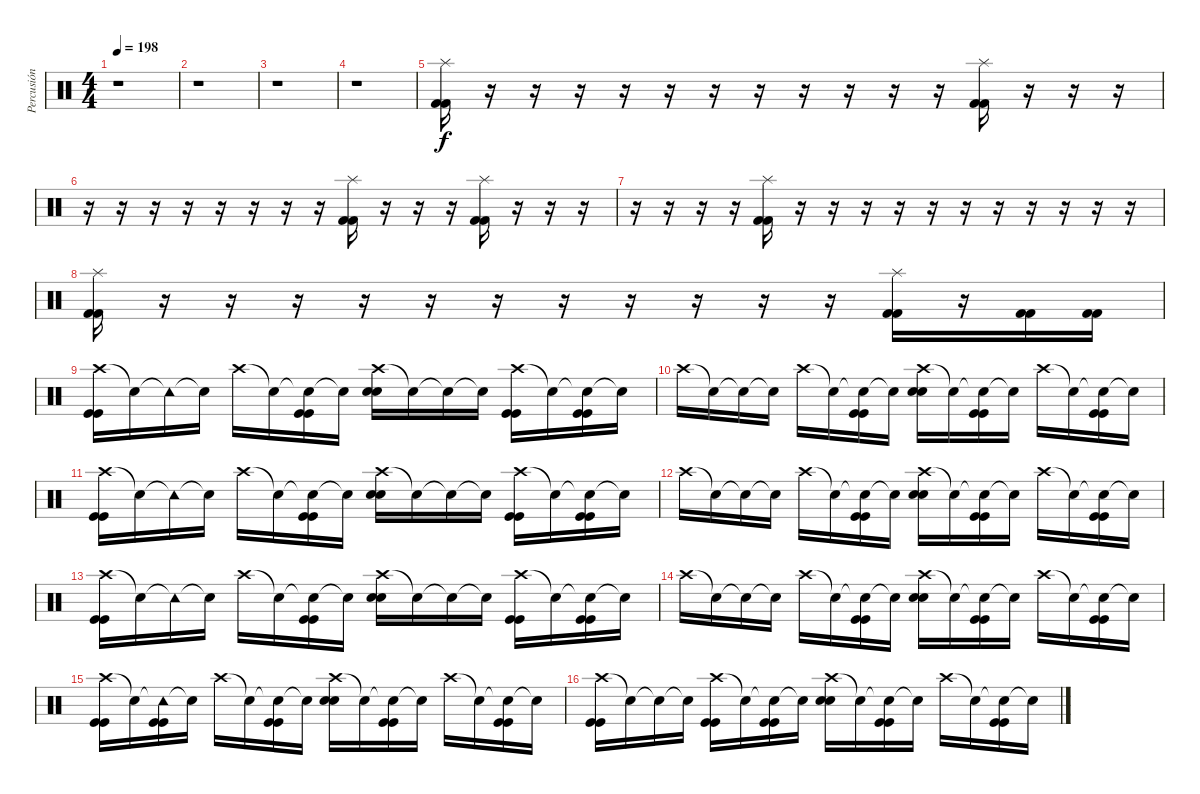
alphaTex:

\track ("Percusión" "Percusión") {instrument percussion}
\staff {score}
\articulation defaults
\ts (4 4)
\tempo 198
\clef neutral
\ks c
r.1{dy f} |
r.1 |
r.1 |
r.1 |
("Splash (hit)" "Kick (hit) 2" "Kick (hit) 2").16 r.16 r.16 r.16 r.16 r.16 r.16 r.16 r.16 r.16 r.16 r.16 ("Splash (hit)" "Kick (hit) 2" "Kick (hit) 2").16 r.16 r.16 r.16 |
r.16 r.16 r.16 r.16 r.16 r.16 r.16 r.16 ("Splash (hit)" "Kick (hit) 2" "Kick (hit) 2").16 r.16 r.16 r.16 ("Splash (hit)" "Kick (hit) 2" "Kick (hit) 2").16 r.16 r.16 r.16 |
r.16 r.16 r.16 r.16 ("Splash (hit)" "Kick (hit) 2" "Kick (hit) 2").16 r.16 r.16 r.16 r.16 r.16 r.16 r.16 r.16 r.16 r.16 r.16 |
("Splash (hit)" "Kick (hit) 2" "Kick (hit) 2").16 r.16 r.16 r.16 r.16 r.16 r.16 r.16 r.16 r.16 r.16 r.16 ("Splash (hit)" "Kick (hit) 2" "Kick (hit) 2").16 r.16 ("Kick (hit) 2" "Kick (hit) 2").16 ("Kick (hit) 2" "Kick (hit) 2").16 |
("Crash high (hit)" "Kick (hit)" "Kick (hit)").16 "Snare (hit)"{t}.16 "Tambourine (hit)"{t}.16 "Snare (hit)"{t}.16 "Crash high (hit)".16 "Snare (hit)"{t}.16 ("Snare (hit)"{t} "Kick (hit)" "Kick (hit)").16 "Snare (hit)"{t}.16 ("Crash high (hit)" "Snare (hit) 2" "Snare (hit) 2").16 "Snare (hit)"{t}.16 "Snare (hit)"{t}.16 "Snare (hit)"{t}.16 ("Crash high (hit)" "Kick (hit)" "Kick (hit)").16 "Snare (hit)"{t}.16 ("Snare (hit)"{t} "Kick (hit)" "Kick (hit)").16 "Snare (hit)"{t}.16 |
"Crash high (hit)".16 "Snare (hit)"{t}.16 "Snare (hit)"{t}.16 "Snare (hit)"{t}.16 "Crash high (hit)".16 "Snare (hit)"{t}.16 ("Snare (hit)"{t} "Kick (hit)" "Kick (hit)").16 "Snare (hit)"{t}.16 ("Crash high (hit)" "Snare (hit) 2" "Snare (hit) 2").16 "Snare (hit)"{t}.16 ("Snare (hit)"{t} "Kick (hit)" "Kick (hit)").16 "Snare (hit)"{t}.16 "Crash high (hit)".16 "Snare (hit)"{t}.16 ("Snare (hit)"{t} "Kick (hit)" "Kick (hit)").16 "Snare (hit)"{t}.16 |
("Crash high (hit)" "Kick (hit)" "Kick (hit)").16 "Snare (hit)"{t}.16 "Tambourine (hit)"{t}.16 "Snare (hit)"{t}.16 "Crash high (hit)".16 "Snare (hit)"{t}.16 ("Snare (hit)"{t} "Kick (hit)" "Kick (hit)").16 "Snare (hit)"{t}.16 ("Crash high (hit)" "Snare (hit) 2" "Snare (hit) 2").16 "Snare (hit)"{t}.16 "Snare (hit)"{t}.16 "Snare (hit)"{t}.16 ("Crash high (hit)" "Kick (hit)" "Kick (hit)").16 "Snare (hit)"{t}.16 ("Snare (hit)"{t} "Kick (hit)" "Kick (hit)").16 "Snare (hit)"{t}.16 |
"Crash high (hit)".16 "Snare (hit)"{t}.16 "Snare (hit)"{t}.16 "Snare (hit)"{t}.16 "Crash high (hit)".16 "Snare (hit)"{t}.16 ("Snare (hit)"{t} "Kick (hit)" "Kick (hit)").16 "Snare (hit)"{t}.16 ("Crash high (hit)" "Snare (hit) 2" "Snare (hit) 2").16 "Snare (hit)"{t}.16 ("Snare (hit)"{t} "Kick (hit)" "Kick (hit)").16 "Snare (hit)"{t}.16 "Crash high (hit)".16 "Snare (hit)"{t}.16 ("Snare (hit)"{t} "Kick (hit)" "Kick (hit)").16 "Snare (hit)"{t}.16 |
("Crash high (hit)" "Kick (hit)" "Kick (hit)").16 "Snare (hit)"{t}.16 "Tambourine (hit)"{t}.16 "Snare (hit)"{t}.16 "Crash high (hit)".16 "Snare (hit)"{t}.16 ("Snare (hit)"{t} "Kick (hit)" "Kick (hit)").16 "Snare (hit)"{t}.16 ("Crash high (hit)" "Snare (hit) 2" "Snare (hit) 2").16 "Snare (hit)"{t}.16 "Snare (hit)"{t}.16 "Snare (hit)"{t}.16 ("Crash high (hit)" "Kick (hit)" "Kick (hit)").16 "Snare (hit)"{t}.16 ("Snare (hit)"{t} "Kick (hit)" "Kick (hit)").16 "Snare (hit)"{t}.16 |
"Crash high (hit)".16 "Snare (hit)"{t}.16 "Snare (hit)"{t}.16 "Snare (hit)"{t}.16 "Crash high (hit)".16 "Snare (hit)"{t}.16 ("Snare (hit)"{t} "Kick (hit)" "Kick (hit)").16 "Snare (hit)"{t}.16 ("Crash high (hit)" "Snare (hit) 2" "Snare (hit) 2").16 "Snare (hit)"{t}.16 ("Snare (hit)"{t} "Kick (hit)" "Kick (hit)").16 "Snare (hit)"{t}.16 "Crash high (hit)".16 "Snare (hit)"{t}.16 ("Snare (hit)"{t} "Kick (hit)" "Kick (hit)").16 "Snare (hit)"{t}.16 |
("Crash high (hit)" "Kick (hit)" "Kick (hit)").16 "Snare (hit)"{t}.16 ("Tambourine (hit)"{t} "Kick (hit)" "Kick (hit)").16 "Snare (hit)"{t}.16 "Crash high (hit)".16 "Snare (hit)"{t}.16 ("Snare (hit)"{t} "Kick (hit)" "Kick (hit)").16 "Snare (hit)"{t}.16 ("Crash high (hit)" "Snare (hit) 2" "Snare (hit) 2").16 "Snare (hit)"{t}.16 ("Snare (hit)"{t} "Kick (hit)" "Kick (hit)").16 "Snare (hit)"{t}.16 "Crash high (hit)".16 "Snare (hit)"{t}.16 ("Snare (hit)"{t} "Kick (hit)" "Kick (hit)").16 "Snare (hit)"{t}.16 |
("Crash high (hit)" "Kick (hit)" "Kick (hit)").16 "Snare (hit)"{t}.16 "Snare (hit)"{t}.16 "Snare (hit)"{t}.16 ("Crash high (hit)" "Kick (hit)" "Kick (hit)").16 "Snare (hit)"{t}.16 ("Snare (hit)"{t} "Kick (hit)" "Kick (hit)").16 "Snare (hit)"{t}.16 ("Crash high (hit)" "Snare (hit) 2" "Snare (hit) 2").16 "Snare (hit)"{t}.16 ("Snare (hit)"{t} "Kick (hit)" "Kick (hit)").16 "Snare (hit)"{t}.16 "Crash high (hit)".16 "Snare (hit)"{t}.16 ("Snare (hit)"{t} "Kick (hit)" "Kick (hit)").16 "Snare (hit)"{t}.16
